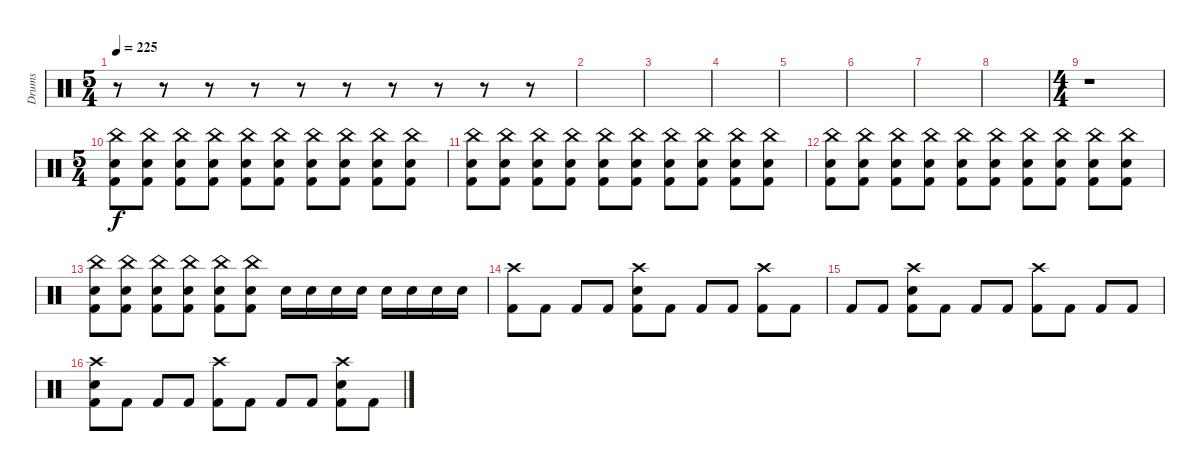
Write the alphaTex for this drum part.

\track ("Drums" "Drums") {instrument percussion}
\staff {score}
\articulation defaults
\ts (5 4)
\tempo 225
\clef neutral
\ks c
r.8{dy f} r.8 r.8 r.8 r.8 r.8 r.8 r.8 r.8 r.8 |
|
|
|
|
|
|
|
\ts (4 4)
r.1 |
\ts (5 4)
("China (hit)" "Electric Snare (hit)" "Kick (hit) 2").8 ("China (hit)" "Electric Snare (hit)" "Kick (hit) 2").8 ("China (hit)" "Electric Snare (hit)" "Kick (hit) 2").8 ("China (hit)" "Electric Snare (hit)" "Kick (hit) 2").8 ("China (hit)" "Electric Snare (hit)" "Kick (hit) 2").8 ("China (hit)" "Electric Snare (hit)" "Kick (hit) 2").8 ("China (hit)" "Electric Snare (hit)" "Kick (hit) 2").8 ("China (hit)" "Electric Snare (hit)" "Kick (hit) 2").8 ("China (hit)" "Electric Snare (hit)" "Kick (hit) 2").8 ("China (hit)" "Electric Snare (hit)" "Kick (hit) 2").8 |
("China (hit)" "Electric Snare (hit)" "Kick (hit) 2").8 ("China (hit)" "Electric Snare (hit)" "Kick (hit) 2").8 ("China (hit)" "Electric Snare (hit)" "Kick (hit) 2").8 ("China (hit)" "Electric Snare (hit)" "Kick (hit) 2").8 ("China (hit)" "Electric Snare (hit)" "Kick (hit) 2").8 ("China (hit)" "Electric Snare (hit)" "Kick (hit) 2").8 ("China (hit)" "Electric Snare (hit)" "Kick (hit) 2").8 ("China (hit)" "Electric Snare (hit)" "Kick (hit) 2").8 ("China (hit)" "Electric Snare (hit)" "Kick (hit) 2").8 ("China (hit)" "Electric Snare (hit)" "Kick (hit) 2").8 |
("China (hit)" "Electric Snare (hit)" "Kick (hit) 2").8 ("China (hit)" "Electric Snare (hit)" "Kick (hit) 2").8 ("China (hit)" "Electric Snare (hit)" "Kick (hit) 2").8 ("China (hit)" "Electric Snare (hit)" "Kick (hit) 2").8 ("China (hit)" "Electric Snare (hit)" "Kick (hit) 2").8 ("China (hit)" "Electric Snare (hit)" "Kick (hit) 2").8 ("China (hit)" "Electric Snare (hit)" "Kick (hit) 2").8 ("China (hit)" "Electric Snare (hit)" "Kick (hit) 2").8 ("China (hit)" "Electric Snare (hit)" "Kick (hit) 2").8 ("China (hit)" "Electric Snare (hit)" "Kick (hit) 2").8 |
("China (hit)" "Electric Snare (hit)" "Kick (hit) 2").8 ("China (hit)" "Electric Snare (hit)" "Kick (hit) 2").8 ("China (hit)" "Electric Snare (hit)" "Kick (hit) 2").8 ("China (hit)" "Electric Snare (hit)" "Kick (hit) 2").8 ("China (hit)" "Electric Snare (hit)" "Kick (hit) 2").8 ("China (hit)" "Electric Snare (hit)" "Kick (hit) 2").8 "Electric Snare (hit)".16 "Electric Snare (hit)".16 "Electric Snare (hit)".16 "Electric Snare (hit)".16 "Electric Snare (hit)".16 "Electric Snare (hit)".16 "Electric Snare (hit)".16 "Electric Snare (hit)".16 |
("Crash high (hit)" "Kick (hit) 2").8 "Kick (hit) 2".8 "Kick (hit) 2".8 "Kick (hit) 2".8 ("Crash high (hit)" "Electric Snare (hit)" "Kick (hit) 2").8 "Kick (hit) 2".8 "Kick (hit) 2".8 "Kick (hit) 2".8 ("Crash high (hit)" "Kick (hit) 2").8 "Kick (hit) 2".8 |
"Kick (hit) 2".8 "Kick (hit) 2".8 ("Crash high (hit)" "Electric Snare (hit)" "Kick (hit) 2").8 "Kick (hit) 2".8 "Kick (hit) 2".8 "Kick (hit) 2".8 ("Crash high (hit)" "Kick (hit) 2").8 "Kick (hit) 2".8 "Kick (hit) 2".8 "Kick (hit) 2".8 |
("Crash high (hit)" "Electric Snare (hit)" "Kick (hit) 2").8 "Kick (hit) 2".8 "Kick (hit) 2".8 "Kick (hit) 2".8 ("Crash high (hit)" "Kick (hit) 2").8 "Kick (hit) 2".8 "Kick (hit) 2".8 "Kick (hit) 2".8 ("Crash high (hit)" "Electric Snare (hit)" "Kick (hit) 2").8 "Kick (hit) 2".8
